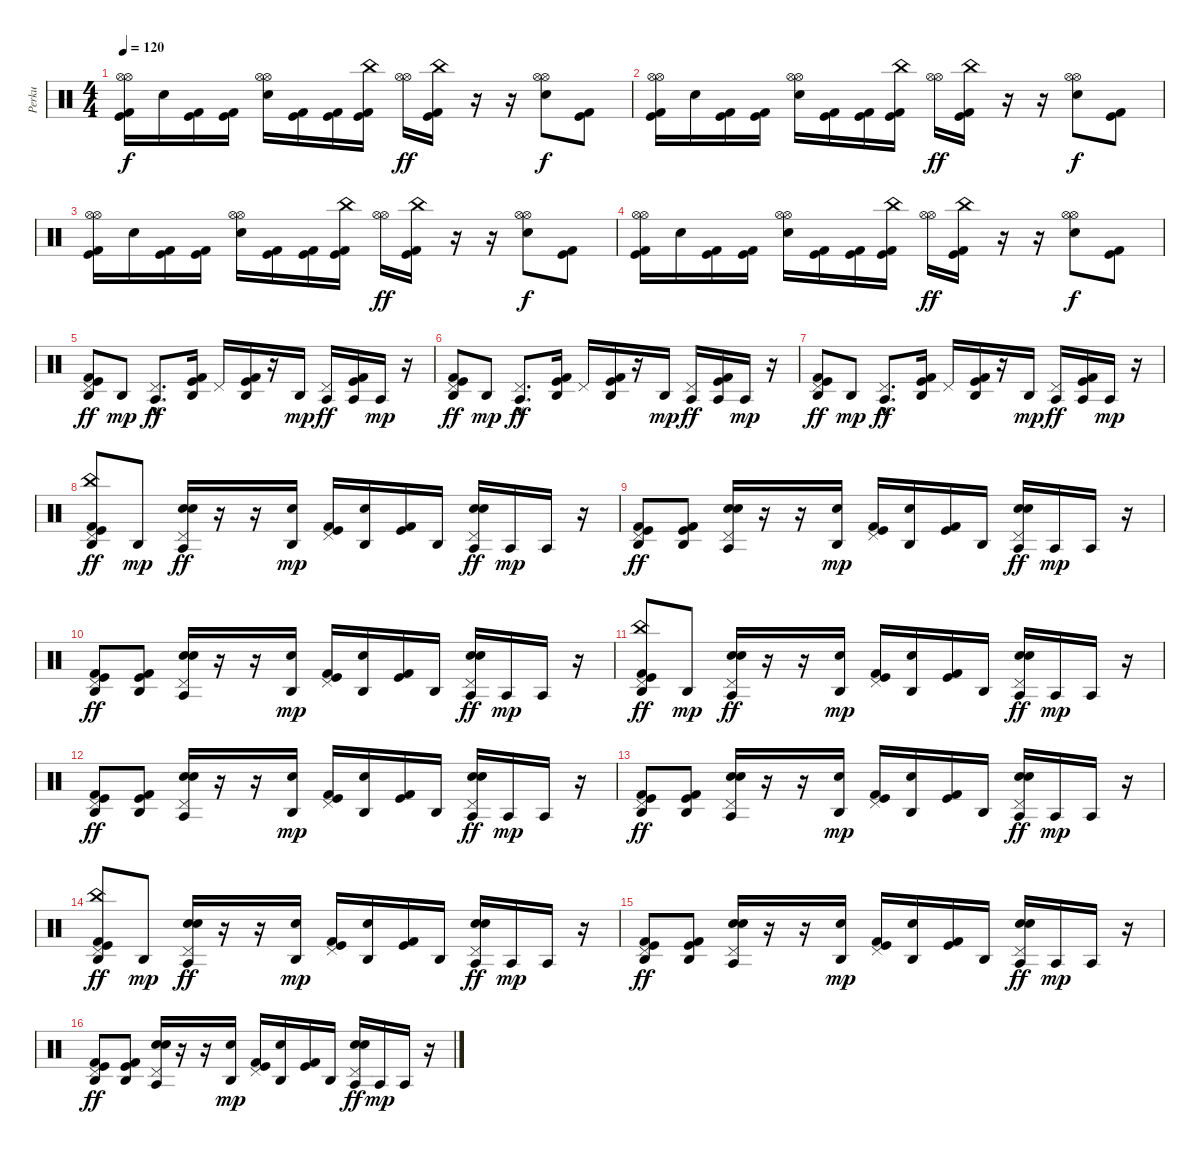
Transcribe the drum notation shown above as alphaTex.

\track ("Perku" "Perku") {instrument percussion}
\staff {score}
\articulation defaults
\ts (4 4)
\tempo 120
\clef neutral
\ks c
("Hi-Hat (open)" "Hi-Hat (open)" "Kick (hit)" "Kick (hit) 2").16{dy f} "Electric Snare (hit)".16 ("Kick (hit)" "Kick (hit) 2").16 ("Kick (hit) 2" "Kick (hit)").16 ("Hi-Hat (open)" "Hi-Hat (open)" "Electric Snare (hit)").16 ("Kick (hit) 2" "Kick (hit)").16 ("Kick (hit)" "Kick (hit) 2").16 ("China (hit)" "Kick (hit)" "Kick (hit) 2").16 ("Hi-Hat (open)" "Hi-Hat (open)").16{dy ff} ("China (hit)" "Kick (hit) 2" "Kick (hit)").16 r.16 r.16 ("Hi-Hat (open)" "Hi-Hat (open)" "Electric Snare (hit)").8{dy f} ("Kick (hit)" "Kick (hit) 2").8 |
("Hi-Hat (open)" "Hi-Hat (open)" "Kick (hit)" "Kick (hit) 2").16 "Electric Snare (hit)".16 ("Kick (hit)" "Kick (hit) 2").16 ("Kick (hit) 2" "Kick (hit)").16 ("Hi-Hat (open)" "Hi-Hat (open)" "Electric Snare (hit)").16 ("Kick (hit) 2" "Kick (hit)").16 ("Kick (hit)" "Kick (hit) 2").16 ("China (hit)" "Kick (hit)" "Kick (hit) 2").16 ("Hi-Hat (open)" "Hi-Hat (open)").16{dy ff} ("China (hit)" "Kick (hit) 2" "Kick (hit)").16 r.16 r.16 ("Hi-Hat (open)" "Hi-Hat (open)" "Electric Snare (hit)").8{dy f} ("Kick (hit)" "Kick (hit) 2").8 |
("Hi-Hat (open)" "Hi-Hat (open)" "Kick (hit)" "Kick (hit) 2").16 "Electric Snare (hit)".16 ("Kick (hit)" "Kick (hit) 2").16 ("Kick (hit) 2" "Kick (hit)").16 ("Hi-Hat (open)" "Hi-Hat (open)" "Electric Snare (hit)").16 ("Kick (hit) 2" "Kick (hit)").16 ("Kick (hit)" "Kick (hit) 2").16 ("China (hit)" "Kick (hit)" "Kick (hit) 2").16 ("Hi-Hat (open)" "Hi-Hat (open)").16{dy ff} ("China (hit)" "Kick (hit) 2" "Kick (hit)").16 r.16 r.16 ("Hi-Hat (open)" "Hi-Hat (open)" "Electric Snare (hit)").8{dy f} ("Kick (hit)" "Kick (hit) 2").8 |
("Hi-Hat (open)" "Hi-Hat (open)" "Kick (hit)" "Kick (hit) 2").16 "Electric Snare (hit)".16 ("Kick (hit)" "Kick (hit) 2").16 ("Kick (hit) 2" "Kick (hit)").16 ("Hi-Hat (open)" "Hi-Hat (open)" "Electric Snare (hit)").16 ("Kick (hit) 2" "Kick (hit)").16 ("Kick (hit)" "Kick (hit) 2").16 ("China (hit)" "Kick (hit)" "Kick (hit) 2").16 ("Hi-Hat (open)" "Hi-Hat (open)").16{dy ff} ("China (hit)" "Kick (hit) 2" "Kick (hit)").16 r.16 r.16 ("Hi-Hat (open)" "Hi-Hat (open)" "Electric Snare (hit)").8{dy f} ("Kick (hit)" "Kick (hit) 2").8 |
("Agogo high (hit)" "Pedal Hi-Hat (hit)" "Kick (hit) 2" "Kick (hit)").8{dy ff} "Agogo high (hit)".8{dy mp} ("Agogo tow (hit)"{hac} "Pedal Hi-Hat (hit)"{hac}).8{d dy ff} ("Agogo high (hit)" "Kick (hit) 2" "Kick (hit)").16 "Pedal Hi-Hat (hit)".16 ("Agogo high (hit)" "Kick (hit)" "Kick (hit) 2").16 r.16 "Agogo high (hit)".16{dy mp} ("Agogo tow (hit)" "Pedal Hi-Hat (hit)").16{dy ff} ("Agogo tow (hit)" "Kick (hit) 2" "Kick (hit)").16 "Agogo tow (hit)".16{dy mp} r.16 |
("Agogo high (hit)" "Pedal Hi-Hat (hit)" "Kick (hit) 2" "Kick (hit)").8{dy ff} "Agogo high (hit)".8{dy mp} ("Agogo tow (hit)"{hac} "Pedal Hi-Hat (hit)"{hac}).8{d dy ff} ("Agogo high (hit)" "Kick (hit) 2" "Kick (hit)").16 "Pedal Hi-Hat (hit)".16 ("Agogo high (hit)" "Kick (hit)" "Kick (hit) 2").16 r.16 "Agogo high (hit)".16{dy mp} ("Agogo tow (hit)" "Pedal Hi-Hat (hit)").16{dy ff} ("Agogo tow (hit)" "Kick (hit) 2" "Kick (hit)").16 "Agogo tow (hit)".16{dy mp} r.16 |
("Agogo high (hit)" "Pedal Hi-Hat (hit)" "Kick (hit) 2" "Kick (hit)").8{dy ff} "Agogo high (hit)".8{dy mp} ("Agogo tow (hit)"{hac} "Pedal Hi-Hat (hit)"{hac}).8{d dy ff} ("Agogo high (hit)" "Kick (hit) 2" "Kick (hit)").16 "Pedal Hi-Hat (hit)".16 ("Agogo high (hit)" "Kick (hit)" "Kick (hit) 2").16 r.16 "Agogo high (hit)".16{dy mp} ("Agogo tow (hit)" "Pedal Hi-Hat (hit)").16{dy ff} ("Agogo tow (hit)" "Kick (hit) 2" "Kick (hit)").16 "Agogo tow (hit)".16{dy mp} r.16 |
("Agogo high (hit)" "China (hit)" "Pedal Hi-Hat (hit)" "Kick (hit) 2" "Kick (hit)").8{dy ff} "Agogo high (hit)".8{dy mp} ("Agogo tow (hit)" "Pedal Hi-Hat (hit)" "Electric Snare (hit)" "Electric Snare (hit)").16{dy ff} r.16 r.16 ("Agogo high (hit)" "Electric Snare (hit)").16{dy mp} ("Pedal Hi-Hat (hit)" "Kick (hit) 2" "Kick (hit)").16 ("Agogo high (hit)" "Electric Snare (hit)").16 ("Kick (hit) 2" "Kick (hit)").16 "Agogo high (hit)".16 ("Agogo tow (hit)" "Pedal Hi-Hat (hit)" "Electric Snare (hit)" "Electric Snare (hit)").16{dy ff} "Agogo tow (hit)".16{dy mp} "Agogo tow (hit)".16 r.16 |
("Agogo high (hit)" "Pedal Hi-Hat (hit)" "Kick (hit) 2" "Kick (hit)").8{dy ff} ("Agogo high (hit)" "Kick (hit) 2" "Kick (hit)").8 ("Agogo tow (hit)" "Pedal Hi-Hat (hit)" "Electric Snare (hit)" "Electric Snare (hit)").16 r.16 r.16 ("Agogo high (hit)" "Electric Snare (hit)").16{dy mp} ("Pedal Hi-Hat (hit)" "Kick (hit) 2" "Kick (hit)").16 ("Agogo high (hit)" "Electric Snare (hit)").16 ("Kick (hit) 2" "Kick (hit)").16 "Agogo high (hit)".16 ("Agogo tow (hit)" "Pedal Hi-Hat (hit)" "Electric Snare (hit)" "Electric Snare (hit)").16{dy ff} "Agogo tow (hit)".16{dy mp} "Agogo tow (hit)".16 r.16 |
("Agogo high (hit)" "Pedal Hi-Hat (hit)" "Kick (hit) 2" "Kick (hit)").8{dy ff} ("Agogo high (hit)" "Kick (hit)" "Kick (hit) 2").8 ("Agogo tow (hit)" "Pedal Hi-Hat (hit)" "Electric Snare (hit)" "Electric Snare (hit)").16 r.16 r.16 ("Agogo high (hit)" "Electric Snare (hit)").16{dy mp} ("Pedal Hi-Hat (hit)" "Kick (hit) 2" "Kick (hit)").16 ("Agogo high (hit)" "Electric Snare (hit)").16 ("Kick (hit) 2" "Kick (hit)").16 "Agogo high (hit)".16 ("Agogo tow (hit)" "Pedal Hi-Hat (hit)" "Electric Snare (hit)" "Electric Snare (hit)").16{dy ff} "Agogo tow (hit)".16{dy mp} "Agogo tow (hit)".16 r.16 |
("Agogo high (hit)" "China (hit)" "Pedal Hi-Hat (hit)" "Kick (hit) 2" "Kick (hit)").8{dy ff} "Agogo high (hit)".8{dy mp} ("Agogo tow (hit)" "Pedal Hi-Hat (hit)" "Electric Snare (hit)" "Electric Snare (hit)").16{dy ff} r.16 r.16 ("Agogo high (hit)" "Electric Snare (hit)").16{dy mp} ("Pedal Hi-Hat (hit)" "Kick (hit) 2" "Kick (hit)").16 ("Agogo high (hit)" "Electric Snare (hit)").16 ("Kick (hit) 2" "Kick (hit)").16 "Agogo high (hit)".16 ("Agogo tow (hit)" "Pedal Hi-Hat (hit)" "Electric Snare (hit)" "Electric Snare (hit)").16{dy ff} "Agogo tow (hit)".16{dy mp} "Agogo tow (hit)".16 r.16 |
("Agogo high (hit)" "Pedal Hi-Hat (hit)" "Kick (hit) 2" "Kick (hit)").8{dy ff} ("Agogo high (hit)" "Kick (hit) 2" "Kick (hit)").8 ("Agogo tow (hit)" "Pedal Hi-Hat (hit)" "Electric Snare (hit)" "Electric Snare (hit)").16 r.16 r.16 ("Agogo high (hit)" "Electric Snare (hit)").16{dy mp} ("Pedal Hi-Hat (hit)" "Kick (hit) 2" "Kick (hit)").16 ("Agogo high (hit)" "Electric Snare (hit)").16 ("Kick (hit) 2" "Kick (hit)").16 "Agogo high (hit)".16 ("Agogo tow (hit)" "Pedal Hi-Hat (hit)" "Electric Snare (hit)" "Electric Snare (hit)").16{dy ff} "Agogo tow (hit)".16{dy mp} "Agogo tow (hit)".16 r.16 |
("Agogo high (hit)" "Pedal Hi-Hat (hit)" "Kick (hit) 2" "Kick (hit)").8{dy ff} ("Agogo high (hit)" "Kick (hit)" "Kick (hit) 2").8 ("Agogo tow (hit)" "Pedal Hi-Hat (hit)" "Electric Snare (hit)" "Electric Snare (hit)").16 r.16 r.16 ("Agogo high (hit)" "Electric Snare (hit)").16{dy mp} ("Pedal Hi-Hat (hit)" "Kick (hit) 2" "Kick (hit)").16 ("Agogo high (hit)" "Electric Snare (hit)").16 ("Kick (hit) 2" "Kick (hit)").16 "Agogo high (hit)".16 ("Agogo tow (hit)" "Pedal Hi-Hat (hit)" "Electric Snare (hit)" "Electric Snare (hit)").16{dy ff} "Agogo tow (hit)".16{dy mp} "Agogo tow (hit)".16 r.16 |
("Agogo high (hit)" "China (hit)" "Pedal Hi-Hat (hit)" "Kick (hit) 2" "Kick (hit)").8{dy ff} "Agogo high (hit)".8{dy mp} ("Agogo tow (hit)" "Pedal Hi-Hat (hit)" "Electric Snare (hit)" "Electric Snare (hit)").16{dy ff} r.16 r.16 ("Agogo high (hit)" "Electric Snare (hit)").16{dy mp} ("Pedal Hi-Hat (hit)" "Kick (hit) 2" "Kick (hit)").16 ("Agogo high (hit)" "Electric Snare (hit)").16 ("Kick (hit) 2" "Kick (hit)").16 "Agogo high (hit)".16 ("Agogo tow (hit)" "Pedal Hi-Hat (hit)" "Electric Snare (hit)" "Electric Snare (hit)").16{dy ff} "Agogo tow (hit)".16{dy mp} "Agogo tow (hit)".16 r.16 |
("Agogo high (hit)" "Pedal Hi-Hat (hit)" "Kick (hit) 2" "Kick (hit)").8{dy ff} ("Agogo high (hit)" "Kick (hit) 2" "Kick (hit)").8 ("Agogo tow (hit)" "Pedal Hi-Hat (hit)" "Electric Snare (hit)" "Electric Snare (hit)").16 r.16 r.16 ("Agogo high (hit)" "Electric Snare (hit)").16{dy mp} ("Pedal Hi-Hat (hit)" "Kick (hit) 2" "Kick (hit)").16 ("Agogo high (hit)" "Electric Snare (hit)").16 ("Kick (hit) 2" "Kick (hit)").16 "Agogo high (hit)".16 ("Agogo tow (hit)" "Pedal Hi-Hat (hit)" "Electric Snare (hit)" "Electric Snare (hit)").16{dy ff} "Agogo tow (hit)".16{dy mp} "Agogo tow (hit)".16 r.16 |
("Agogo high (hit)" "Pedal Hi-Hat (hit)" "Kick (hit) 2" "Kick (hit)").8{dy ff} ("Agogo high (hit)" "Kick (hit)" "Kick (hit) 2").8 ("Agogo tow (hit)" "Pedal Hi-Hat (hit)" "Electric Snare (hit)" "Electric Snare (hit)").16 r.16 r.16 ("Agogo high (hit)" "Electric Snare (hit)").16{dy mp} ("Pedal Hi-Hat (hit)" "Kick (hit) 2" "Kick (hit)").16 ("Agogo high (hit)" "Electric Snare (hit)").16 ("Kick (hit) 2" "Kick (hit)").16 "Agogo high (hit)".16 ("Agogo tow (hit)" "Pedal Hi-Hat (hit)" "Electric Snare (hit)" "Electric Snare (hit)").16{dy ff} "Agogo tow (hit)".16{dy mp} "Agogo tow (hit)".16 r.16
